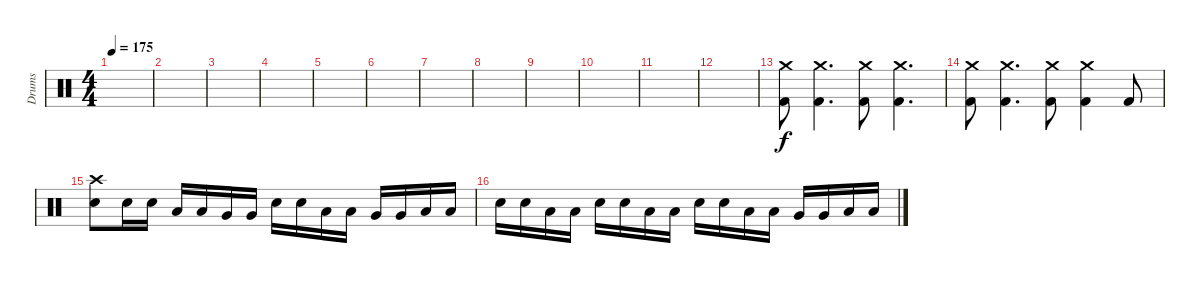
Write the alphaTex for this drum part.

\track ("Drums" "Drums") {instrument percussion}
\staff {score}
\articulation defaults
\ts (4 4)
\tempo 175
\clef neutral
\ks c
|
|
|
|
|
|
|
|
|
|
|
|
("Crash medium (hit)" "Kick (hit) 2").8 ("Crash medium (hit)" "Kick (hit) 2").4{d} ("Crash medium (hit)" "Kick (hit) 2").8 ("Crash medium (hit)" "Kick (hit) 2").4{d} |
("Crash medium (hit)" "Kick (hit) 2").8 ("Crash medium (hit)" "Kick (hit) 2").4{d} ("Crash medium (hit)" "Kick (hit) 2").8 ("Crash medium (hit)" "Kick (hit) 2").4 "Kick (hit) 2".8 |
("Crash high (hit)" "Snare (hit) 2").8 "Snare (hit) 2".16 "Snare (hit) 2".16 "Low Tom (hit)".16 "Low Tom (hit)".16 "Very Low Tom (hit)".16 "Very Low Tom (hit)".16 "Snare (hit) 2".16 "Snare (hit) 2".16 "Low Tom (hit)".16 "Low Tom (hit)".16 "Very Low Tom (hit)".16 "Very Low Tom (hit)".16 "Low Floor Tom (hit)".16 "Low Floor Tom (hit)".16 |
"Snare (hit) 2".16 "Snare (hit) 2".16 "Low Tom (hit)".16 "Low Tom (hit)".16 "Snare (hit) 2".16 "Snare (hit) 2".16 "Low Tom (hit)".16 "Low Tom (hit)".16 "Snare (hit) 2".16 "Snare (hit) 2".16 "Low Tom (hit)".16 "Low Tom (hit)".16 "Very Low Tom (hit)".16 "Very Low Tom (hit)".16 "Low Floor Tom (hit)".16 "Low Floor Tom (hit)".16
